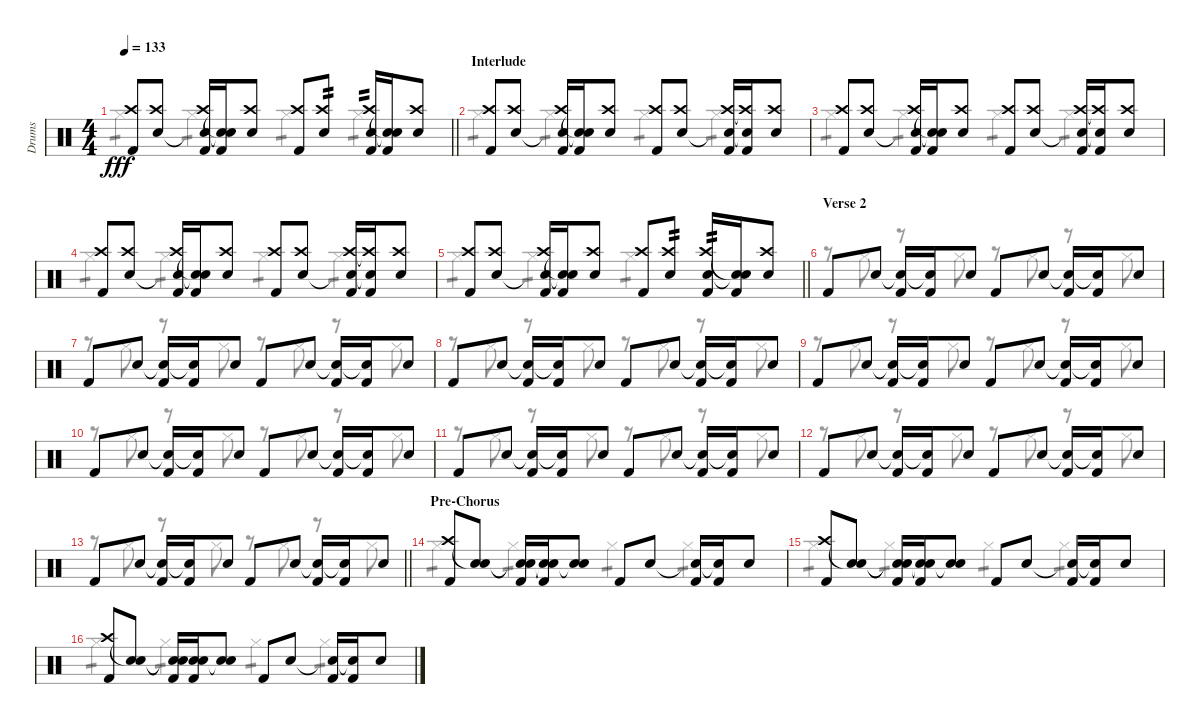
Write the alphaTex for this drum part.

\track ("Drums" "Drums") {instrument percussion}
\staff
\articulation defaults
\voice
\ts (4 4)
\tempo 133
\clef neutral
\barLineRight lightlight
\ks c
("Crash high (hit)" "Kick (hit) 2").8{dy fff} ("Crash high (hit)" "Electric Snare (hit)").8 ("Crash high (hit)" "Electric Snare (hit)"{t} "Kick (hit) 2").16 ("Snare (hit)"{t} "Electric Snare (hit)"{t} "Kick (hit) 2").16 ("Crash high (hit)" "Electric Snare (hit)").8 ("Crash high (hit)" "Kick (hit) 2").8 ("Crash high (hit)" "Electric Snare (hit)").8{tp 2} ("Crash high (hit)" "Electric Snare (hit)" "Kick (hit) 2").16{tp 2} ("Snare (hit)"{t} "Electric Snare (hit)"{t} "Kick (hit) 2").16 ("Crash high (hit)" "Electric Snare (hit)").8 |
\section ("" "Interlude")
("Crash high (hit)" "Kick (hit) 2").8 ("Crash high (hit)" "Electric Snare (hit)").8 ("Crash high (hit)" "Electric Snare (hit)"{t} "Kick (hit) 2").16 ("Snare (hit)"{t} "Electric Snare (hit)"{t} "Kick (hit) 2").16 ("Crash high (hit)" "Electric Snare (hit)").8 ("Crash high (hit)" "Kick (hit) 2").8 ("Crash high (hit)" "Electric Snare (hit)").8 ("Crash high (hit)" "Electric Snare (hit)"{t} "Kick (hit) 2").16 ("Crash high (hit)"{t} "Electric Snare (hit)"{t} "Kick (hit) 2").16 ("Crash high (hit)" "Electric Snare (hit)").8 |
("Crash high (hit)" "Kick (hit) 2").8 ("Crash high (hit)" "Electric Snare (hit)").8 ("Crash high (hit)" "Electric Snare (hit)"{t} "Kick (hit) 2").16 ("Snare (hit)"{t} "Electric Snare (hit)"{t} "Kick (hit) 2").16 ("Crash high (hit)" "Electric Snare (hit)").8 ("Crash high (hit)" "Kick (hit) 2").8 ("Crash high (hit)" "Electric Snare (hit)").8 ("Crash high (hit)" "Electric Snare (hit)"{t} "Kick (hit) 2").16 ("Crash high (hit)"{t} "Electric Snare (hit)"{t} "Kick (hit) 2").16 ("Crash high (hit)" "Electric Snare (hit)").8 |
("Crash high (hit)" "Kick (hit) 2").8 ("Crash high (hit)" "Electric Snare (hit)").8 ("Crash high (hit)" "Electric Snare (hit)"{t} "Kick (hit) 2").16 ("Snare (hit)"{t} "Electric Snare (hit)"{t} "Kick (hit) 2").16 ("Crash high (hit)" "Electric Snare (hit)").8 ("Crash high (hit)" "Kick (hit) 2").8 ("Crash high (hit)" "Electric Snare (hit)").8 ("Crash high (hit)" "Electric Snare (hit)"{t} "Kick (hit) 2").16 ("Crash high (hit)"{t} "Electric Snare (hit)"{t} "Kick (hit) 2").16 ("Crash high (hit)" "Electric Snare (hit)").8 |
\barLineRight lightlight
("Crash high (hit)" "Kick (hit) 2").8 ("Crash high (hit)" "Electric Snare (hit)").8 ("Crash high (hit)" "Electric Snare (hit)"{t} "Kick (hit) 2").16 ("Snare (hit)"{t} "Electric Snare (hit)"{t} "Kick (hit) 2").16 ("Crash high (hit)" "Electric Snare (hit)").8 ("Crash high (hit)" "Kick (hit) 2").8 ("Crash high (hit)" "Electric Snare (hit)").8{tp 2} ("Crash high (hit)" "Electric Snare (hit)" "Kick (hit) 2").16{tp 2} ("Snare (hit)"{t} "Electric Snare (hit)"{t} "Kick (hit) 2").16 ("Crash high (hit)" "Electric Snare (hit)").8 |
\section ("" "Verse 2")
"Kick (hit) 2".8 "Electric Snare (hit)".8 ("Electric Snare (hit)"{t} "Kick (hit) 2").16 ("Electric Snare (hit)"{t} "Kick (hit) 2").16 "Electric Snare (hit)".8 "Kick (hit) 2".8 "Electric Snare (hit)".8 ("Electric Snare (hit)"{t} "Kick (hit) 2").16 ("Electric Snare (hit)"{t} "Kick (hit) 2").16 "Electric Snare (hit)".8 |
"Kick (hit) 2".8 "Electric Snare (hit)".8 ("Electric Snare (hit)"{t} "Kick (hit) 2").16 ("Electric Snare (hit)"{t} "Kick (hit) 2").16 "Electric Snare (hit)".8 "Kick (hit) 2".8 "Electric Snare (hit)".8 ("Electric Snare (hit)"{t} "Kick (hit) 2").16 ("Electric Snare (hit)"{t} "Kick (hit) 2").16 "Electric Snare (hit)".8 |
"Kick (hit) 2".8 "Electric Snare (hit)".8 ("Electric Snare (hit)"{t} "Kick (hit) 2").16 ("Electric Snare (hit)"{t} "Kick (hit) 2").16 "Electric Snare (hit)".8 "Kick (hit) 2".8 "Electric Snare (hit)".8 ("Electric Snare (hit)"{t} "Kick (hit) 2").16 ("Electric Snare (hit)"{t} "Kick (hit) 2").16 "Electric Snare (hit)".8 |
"Kick (hit) 2".8 "Electric Snare (hit)".8 ("Electric Snare (hit)"{t} "Kick (hit) 2").16 ("Electric Snare (hit)"{t} "Kick (hit) 2").16 "Electric Snare (hit)".8 "Kick (hit) 2".8 "Electric Snare (hit)".8 ("Electric Snare (hit)"{t} "Kick (hit) 2").16 ("Electric Snare (hit)"{t} "Kick (hit) 2").16 "Electric Snare (hit)".8 |
"Kick (hit) 2".8 "Electric Snare (hit)".8 ("Electric Snare (hit)"{t} "Kick (hit) 2").16 ("Electric Snare (hit)"{t} "Kick (hit) 2").16 "Electric Snare (hit)".8 "Kick (hit) 2".8 "Electric Snare (hit)".8 ("Electric Snare (hit)"{t} "Kick (hit) 2").16 ("Electric Snare (hit)"{t} "Kick (hit) 2").16 "Electric Snare (hit)".8 |
"Kick (hit) 2".8 "Electric Snare (hit)".8 ("Electric Snare (hit)"{t} "Kick (hit) 2").16 ("Electric Snare (hit)"{t} "Kick (hit) 2").16 "Electric Snare (hit)".8 "Kick (hit) 2".8 "Electric Snare (hit)".8 ("Electric Snare (hit)"{t} "Kick (hit) 2").16 ("Electric Snare (hit)"{t} "Kick (hit) 2").16 "Electric Snare (hit)".8 |
"Kick (hit) 2".8 "Electric Snare (hit)".8 ("Electric Snare (hit)"{t} "Kick (hit) 2").16 ("Electric Snare (hit)"{t} "Kick (hit) 2").16 "Electric Snare (hit)".8 "Kick (hit) 2".8 "Electric Snare (hit)".8 ("Electric Snare (hit)"{t} "Kick (hit) 2").16 ("Electric Snare (hit)"{t} "Kick (hit) 2").16 "Electric Snare (hit)".8 |
\barLineRight lightlight "Kick (hit) 2".8 "Electric Snare (hit)".8
("Electric Snare (hit)"{t} "Kick (hit) 2").16 ("Electric Snare (hit)"{t} "Kick (hit) 2").16 "Electric Snare (hit)".8 "Kick (hit) 2".8 "Electric Snare (hit)".8 ("Electric Snare (hit)"{t} "Kick (hit) 2").16 ("Electric Snare (hit)"{t} "Kick (hit) 2").16 "Electric Snare (hit)".8 |
\section ("" "Pre-Chorus")
("Crash high (hit)" "Kick (hit) 2").8 ("Snare (hit)"{t} "Electric Snare (hit)").8 ("Snare (hit)"{t} "Electric Snare (hit)"{t} "Kick (hit) 2").16 ("Snare (hit)"{t} "Electric Snare (hit)"{t} "Kick (hit) 2").16 ("Snare (hit)"{t} "Electric Snare (hit)").8 "Kick (hit) 2".8 "Electric Snare (hit)".8 ("Electric Snare (hit)"{t} "Kick (hit) 2").16 ("Electric Snare (hit)"{t} "Kick (hit) 2").16 "Electric Snare (hit)".8 |
("Crash high (hit)" "Kick (hit) 2").8 ("Snare (hit)"{t} "Electric Snare (hit)").8 ("Snare (hit)"{t} "Electric Snare (hit)"{t} "Kick (hit) 2").16 ("Snare (hit)"{t} "Electric Snare (hit)"{t} "Kick (hit) 2").16 ("Snare (hit)"{t} "Electric Snare (hit)").8 "Kick (hit) 2".8 "Electric Snare (hit)".8 ("Electric Snare (hit)"{t} "Kick (hit) 2").16 ("Electric Snare (hit)"{t} "Kick (hit) 2").16 "Electric Snare (hit)".8 |
("Crash high (hit)" "Kick (hit) 2").8 ("Snare (hit)"{t} "Electric Snare (hit)").8 ("Snare (hit)"{t} "Electric Snare (hit)"{t} "Kick (hit) 2").16 ("Snare (hit)"{t} "Electric Snare (hit)"{t} "Kick (hit) 2").16 ("Snare (hit)"{t} "Electric Snare (hit)").8 "Kick (hit) 2".8 "Electric Snare (hit)".8 ("Electric Snare (hit)"{t} "Kick (hit) 2").16 ("Electric Snare (hit)"{t} "Kick (hit) 2").16 "Electric Snare (hit)".8
\voice
\clef neutral
\ottava regular
\simile none
\barLineRight lightlight
\ks c "Hi-Hat (closed)".4{tp 1 dy fff} "Hi-Hat (closed)".4{tp 1} "Hi-Hat (closed)".4{tp 1} "Hi-Hat (closed)".4{tp 1}
|
"Hi-Hat (closed)".4{tp 1} "Hi-Hat (closed)".4{tp 1} "Hi-Hat (closed)".4{tp 1} "Hi-Hat (closed)".4{tp 1} |
"Hi-Hat (closed)".4{tp 1} "Hi-Hat (closed)".4{tp 1} "Hi-Hat (closed)".4{tp 1} "Hi-Hat (closed)".4{tp 1} |
"Hi-Hat (closed)".4{tp 1} "Hi-Hat (closed)".4{tp 1} "Hi-Hat (closed)".4{tp 1} "Hi-Hat (closed)".4{tp 1} |
\barLineRight lightlight "Hi-Hat (closed)".4{tp 1} "Hi-Hat (closed)".4{tp 1} "Hi-Hat (closed)".4{tp 1}
|
r.8 "Hi-Hat (closed)".8 r.8 "Hi-Hat (closed)".8 r.8 "Hi-Hat (closed)".8 r.8 "Hi-Hat (closed)".8 |
r.8 "Hi-Hat (closed)".8 r.8 "Hi-Hat (closed)".8 r.8 "Hi-Hat (closed)".8 r.8 "Hi-Hat (closed)".8 |
r.8 "Hi-Hat (closed)".8 r.8 "Hi-Hat (closed)".8 r.8 "Hi-Hat (closed)".8 r.8 "Hi-Hat (closed)".8 |
r.8 "Hi-Hat (closed)".8 r.8 "Hi-Hat (closed)".8 r.8 "Hi-Hat (closed)".8 r.8 "Hi-Hat (closed)".8 |
r.8 "Hi-Hat (closed)".8 r.8 "Hi-Hat (closed)".8 r.8 "Hi-Hat (closed)".8 r.8 "Hi-Hat (closed)".8 |
r.8 "Hi-Hat (closed)".8 r.8 "Hi-Hat (closed)".8 r.8 "Hi-Hat (closed)".8 r.8 "Hi-Hat (closed)".8 |
r.8 "Hi-Hat (closed)".8 r.8 "Hi-Hat (closed)".8 r.8 "Hi-Hat (closed)".8 r.8 "Hi-Hat (closed)".8 |
\barLineRight lightlight
r.8 "Hi-Hat (closed)".8 r.8 "Hi-Hat (closed)".8 r.8 "Hi-Hat (closed)".8 r.8 "Hi-Hat (closed)".8 |
"Hi-Hat (closed)".4{tp 1} "Hi-Hat (closed)".4{tp 1} "Hi-Hat (closed)".4{tp 1} "Hi-Hat (closed)".4{tp 1} |
"Hi-Hat (closed)".4{tp 1} "Hi-Hat (closed)".4{tp 1} "Hi-Hat (closed)".4{tp 1} "Hi-Hat (closed)".4{tp 1} |
"Hi-Hat (closed)".4{tp 1} "Hi-Hat (closed)".4{tp 1} "Hi-Hat (closed)".4{tp 1} "Hi-Hat (closed)".4{tp 1}
